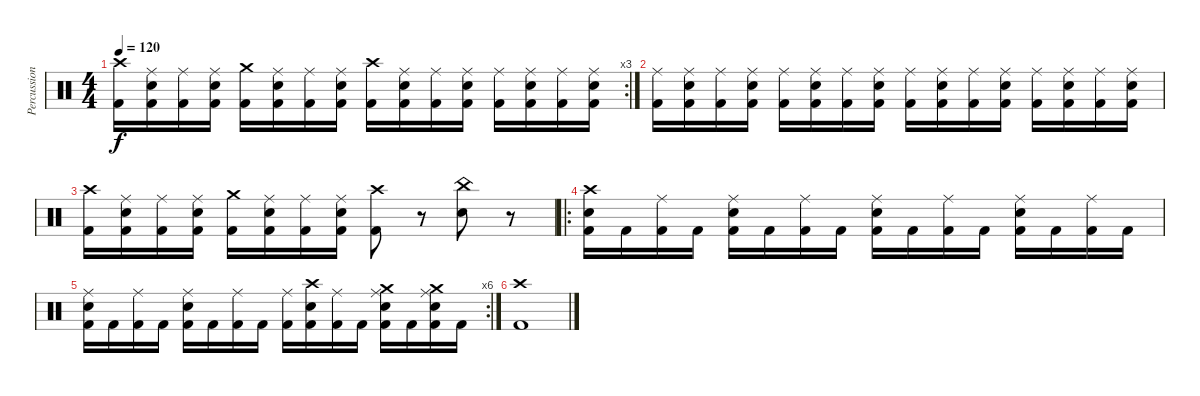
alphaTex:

\track ("Percussion" "Percussion") {instrument percussion}
\staff {score}
\articulation defaults
\rc 3
\ts (4 4)
\tempo 120
\clef neutral
\ks c
("Crash high (hit)" "Kick (hit) 2").16{dy f} ("Ride (middle)" "Snare (hit) 2" "Kick (hit) 2").16 ("Ride (middle)" "Kick (hit) 2").16 ("Ride (middle)" "Snare (hit) 2" "Kick (hit) 2").16 ("Crash medium (hit)" "Kick (hit) 2").16 ("Ride (middle)" "Snare (hit) 2" "Kick (hit) 2").16 ("Ride (middle)" "Kick (hit) 2").16 ("Ride (middle)" "Snare (hit) 2" "Kick (hit) 2").16 ("Crash high (hit)" "Kick (hit) 2").16 ("Ride (middle)" "Snare (hit) 2" "Kick (hit) 2").16 ("Ride (middle)" "Kick (hit) 2").16 ("Ride (middle)" "Snare (hit) 2" "Kick (hit) 2").16 ("Ride (middle)" "Kick (hit) 2").16 ("Ride (middle)" "Snare (hit) 2" "Kick (hit) 2").16 ("Ride (middle)" "Kick (hit) 2").16 ("Ride (middle)" "Snare (hit) 2" "Kick (hit) 2").16 |
("Ride (middle)" "Kick (hit) 2").16 ("Ride (middle)" "Snare (hit) 2" "Kick (hit) 2").16 ("Ride (middle)" "Kick (hit) 2").16 ("Ride (middle)" "Snare (hit) 2" "Kick (hit) 2").16 ("Ride (middle)" "Kick (hit) 2").16 ("Ride (middle)" "Snare (hit) 2" "Kick (hit) 2").16 ("Ride (middle)" "Kick (hit) 2").16 ("Ride (middle)" "Snare (hit) 2" "Kick (hit) 2").16 ("Ride (middle)" "Kick (hit) 2").16 ("Ride (middle)" "Snare (hit) 2" "Kick (hit) 2").16 ("Ride (middle)" "Kick (hit) 2").16 ("Ride (middle)" "Snare (hit) 2" "Kick (hit) 2").16 ("Ride (middle)" "Kick (hit) 2").16 ("Ride (middle)" "Snare (hit) 2" "Kick (hit) 2").16 ("Ride (middle)" "Kick (hit) 2").16 ("Ride (middle)" "Snare (hit) 2" "Kick (hit) 2").16 |
("Crash high (hit)" "Kick (hit) 2").16 ("Ride (middle)" "Snare (hit) 2" "Kick (hit) 2").16 ("Ride (middle)" "Kick (hit) 2").16 ("Ride (middle)" "Snare (hit) 2" "Kick (hit) 2").16 ("Crash medium (hit)" "Kick (hit) 2").16 ("Ride (middle)" "Snare (hit) 2" "Kick (hit) 2").16 ("Ride (middle)" "Kick (hit) 2").16 ("Ride (middle)" "Snare (hit) 2" "Kick (hit) 2").16 ("Crash high (hit)" "Kick (hit) 2").8 r.8 ("China (hit)" "Snare (hit) 2").8 r.8 |
\ro
("Crash high (hit)" "Snare (hit) 2" "Kick (hit) 2").16 "Kick (hit) 2".16 ("Ride (middle)" "Kick (hit) 2").16 "Kick (hit) 2".16 ("Ride (middle)" "Snare (hit) 2" "Kick (hit) 2").16 "Kick (hit) 2".16 ("Ride (middle)" "Kick (hit) 2").16 "Kick (hit) 2".16 ("Ride (middle)" "Snare (hit) 2" "Kick (hit) 2").16 "Kick (hit) 2".16 ("Ride (middle)" "Kick (hit) 2").16 "Kick (hit) 2".16 ("Ride (middle)" "Snare (hit) 2" "Kick (hit) 2").16 "Kick (hit) 2".16 ("Ride (middle)" "Kick (hit) 2").16 "Kick (hit) 2".16 |
\rc 6
("Ride (middle)" "Snare (hit) 2" "Kick (hit) 2").16 "Kick (hit) 2".16 ("Ride (middle)" "Kick (hit) 2").16 "Kick (hit) 2".16 ("Ride (middle)" "Snare (hit) 2" "Kick (hit) 2").16 "Kick (hit) 2".16 ("Ride (middle)" "Kick (hit) 2").16 "Kick (hit) 2".16 ("Ride (middle)" "Kick (hit) 2").16 ("Crash high (hit)" "Snare (hit) 2" "Kick (hit) 2").16 ("Ride (middle)" "Kick (hit) 2").16 "Kick (hit) 2".16 ("Crash medium (hit)" "Ride (middle)" "Snare (hit) 2" "Kick (hit) 2").16 "Kick (hit) 2".16 ("Crash medium (hit)" "Ride (middle)" "Snare (hit) 2" "Kick (hit) 2").16 "Kick (hit) 2".16 |
("Crash high (hit)" "Kick (hit) 2").1
